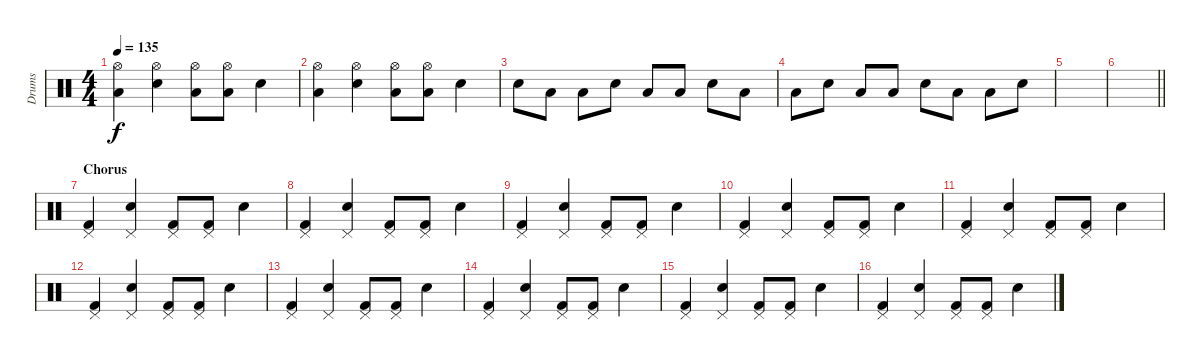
\track ("Drums" "Drums") {instrument percussion}
\staff {score}
\articulation defaults
\ts (4 4)
\tempo 135
\clef neutral
\ks c
("Hi-Hat (open)" "Low Tom (hit)").4{dy f} ("Hi-Hat (open)" "Electric Snare (hit)").4 ("Hi-Hat (open)" "Low Tom (hit)").8 ("Hi-Hat (open)" "Low Tom (hit)").8 "Electric Snare (hit)".4 |
("Hi-Hat (open)" "Low Tom (hit)").4 ("Hi-Hat (open)" "Electric Snare (hit)").4 ("Hi-Hat (open)" "Low Tom (hit)").8 ("Hi-Hat (open)" "Low Tom (hit)").8 "Electric Snare (hit)".4 |
"Electric Snare (hit)".8 "Low Tom (hit)".8 "Low Tom (hit)".8 "Electric Snare (hit)".8 "Low Tom (hit)".8 "Low Tom (hit)".8 "Electric Snare (hit)".8 "Low Tom (hit)".8 |
"Low Tom (hit)".8 "Electric Snare (hit)".8 "Low Tom (hit)".8 "Low Tom (hit)".8 "Electric Snare (hit)".8 "Low Tom (hit)".8 "Low Tom (hit)".8 "Electric Snare (hit)".8 |
|
\barLineRight lightlight
|
\section ("" "Chorus")
("Pedal Hi-Hat (hit)" "Kick (hit) 2").4 ("Pedal Hi-Hat (hit)" "Snare (hit) 2").4 ("Pedal Hi-Hat (hit)" "Kick (hit) 2").8 ("Pedal Hi-Hat (hit)" "Kick (hit) 2").8 "Snare (hit) 2".4 |
("Pedal Hi-Hat (hit)" "Kick (hit) 2").4 ("Pedal Hi-Hat (hit)" "Snare (hit) 2").4 ("Pedal Hi-Hat (hit)" "Kick (hit) 2").8 ("Pedal Hi-Hat (hit)" "Kick (hit) 2").8 "Snare (hit) 2".4 |
("Pedal Hi-Hat (hit)" "Kick (hit) 2").4 ("Pedal Hi-Hat (hit)" "Snare (hit) 2").4 ("Pedal Hi-Hat (hit)" "Kick (hit) 2").8 ("Pedal Hi-Hat (hit)" "Kick (hit) 2").8 "Snare (hit) 2".4 |
("Pedal Hi-Hat (hit)" "Kick (hit) 2").4 ("Pedal Hi-Hat (hit)" "Snare (hit) 2").4 ("Pedal Hi-Hat (hit)" "Kick (hit) 2").8 ("Pedal Hi-Hat (hit)" "Kick (hit) 2").8 "Snare (hit) 2".4 |
("Pedal Hi-Hat (hit)" "Kick (hit) 2").4 ("Pedal Hi-Hat (hit)" "Snare (hit) 2").4 ("Pedal Hi-Hat (hit)" "Kick (hit) 2").8 ("Pedal Hi-Hat (hit)" "Kick (hit) 2").8 "Snare (hit) 2".4 |
("Pedal Hi-Hat (hit)" "Kick (hit) 2").4 ("Pedal Hi-Hat (hit)" "Snare (hit) 2").4 ("Pedal Hi-Hat (hit)" "Kick (hit) 2").8 ("Pedal Hi-Hat (hit)" "Kick (hit) 2").8 "Snare (hit) 2".4 |
("Pedal Hi-Hat (hit)" "Kick (hit) 2").4 ("Pedal Hi-Hat (hit)" "Snare (hit) 2").4 ("Pedal Hi-Hat (hit)" "Kick (hit) 2").8 ("Pedal Hi-Hat (hit)" "Kick (hit) 2").8 "Snare (hit) 2".4 |
("Pedal Hi-Hat (hit)" "Kick (hit) 2").4 ("Pedal Hi-Hat (hit)" "Snare (hit) 2").4 ("Pedal Hi-Hat (hit)" "Kick (hit) 2").8 ("Pedal Hi-Hat (hit)" "Kick (hit) 2").8 "Snare (hit) 2".4 |
("Pedal Hi-Hat (hit)" "Kick (hit) 2").4 ("Pedal Hi-Hat (hit)" "Snare (hit) 2").4 ("Pedal Hi-Hat (hit)" "Kick (hit) 2").8 ("Pedal Hi-Hat (hit)" "Kick (hit) 2").8 "Snare (hit) 2".4 |
("Pedal Hi-Hat (hit)" "Kick (hit) 2").4 ("Pedal Hi-Hat (hit)" "Snare (hit) 2").4 ("Pedal Hi-Hat (hit)" "Kick (hit) 2").8 ("Pedal Hi-Hat (hit)" "Kick (hit) 2").8 "Snare (hit) 2".4
